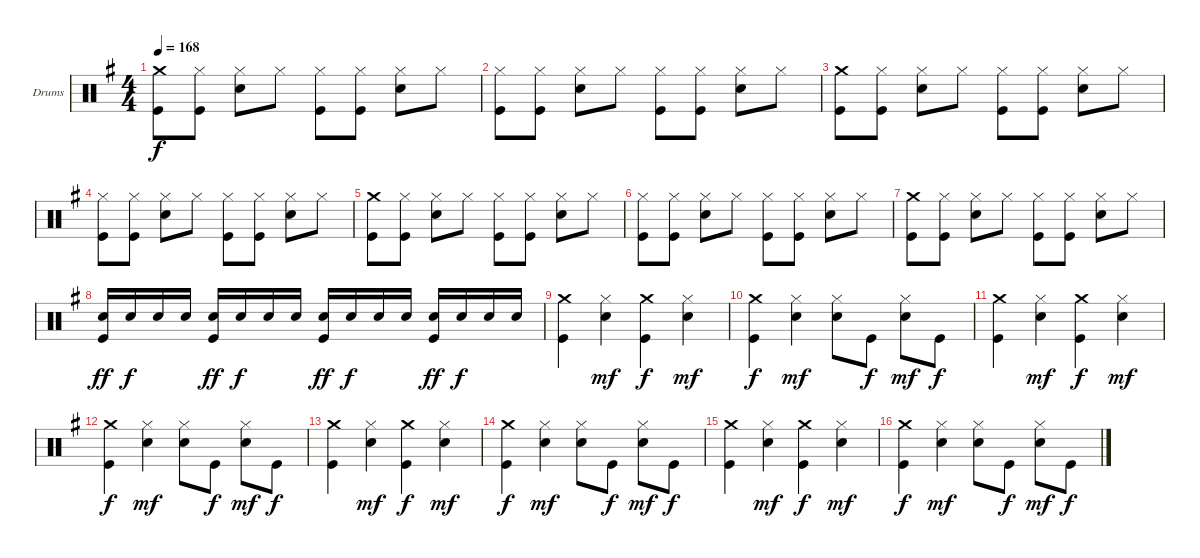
\defaultSystemsLayout 4
\bracketExtendMode groupsimilarinstruments
\firstSystemTrackNameOrientation horizontal
\otherSystemsTrackNameOrientation horizontal
\track ("Drumkit" "Drums") {instrument percussion}
\staff {score}
\articulation defaults
\ts (4 4)
\tempo 168
\clef neutral
\ks g
("Crash medium (hit)" "Kick (hit)").8{dy f} ("Hi-Hat (closed)" "Kick (hit)").8 ("Hi-Hat (closed)" "Snare (hit) 2").8 "Hi-Hat (closed)".8 ("Hi-Hat (closed)" "Kick (hit)").8 ("Hi-Hat (closed)" "Kick (hit)").8 ("Hi-Hat (closed)" "Snare (hit) 2").8 "Hi-Hat (closed)".8 |
("Hi-Hat (closed)" "Kick (hit)").8 ("Hi-Hat (closed)" "Kick (hit)").8 ("Hi-Hat (closed)" "Snare (hit) 2").8 "Hi-Hat (closed)".8 ("Hi-Hat (closed)" "Kick (hit)").8 ("Hi-Hat (closed)" "Kick (hit)").8 ("Hi-Hat (closed)" "Snare (hit) 2").8 "Hi-Hat (closed)".8 |
("Crash medium (hit)" "Kick (hit)").8 ("Hi-Hat (closed)" "Kick (hit)").8 ("Hi-Hat (closed)" "Snare (hit) 2").8 "Hi-Hat (closed)".8 ("Hi-Hat (closed)" "Kick (hit)").8 ("Hi-Hat (closed)" "Kick (hit)").8 ("Hi-Hat (closed)" "Snare (hit) 2").8 "Hi-Hat (closed)".8 |
("Hi-Hat (closed)" "Kick (hit)").8 ("Hi-Hat (closed)" "Kick (hit)").8 ("Hi-Hat (closed)" "Snare (hit) 2").8 "Hi-Hat (closed)".8 ("Hi-Hat (closed)" "Kick (hit)").8 ("Hi-Hat (closed)" "Kick (hit)").8 ("Hi-Hat (closed)" "Snare (hit) 2").8 "Hi-Hat (closed)".8 |
("Crash medium (hit)" "Kick (hit)").8 ("Hi-Hat (closed)" "Kick (hit)").8 ("Hi-Hat (closed)" "Snare (hit) 2").8 "Hi-Hat (closed)".8 ("Hi-Hat (closed)" "Kick (hit)").8 ("Hi-Hat (closed)" "Kick (hit)").8 ("Hi-Hat (closed)" "Snare (hit) 2").8 "Hi-Hat (closed)".8 |
("Hi-Hat (closed)" "Kick (hit)").8 ("Hi-Hat (closed)" "Kick (hit)").8 ("Hi-Hat (closed)" "Snare (hit) 2").8 "Hi-Hat (closed)".8 ("Hi-Hat (closed)" "Kick (hit)").8 ("Hi-Hat (closed)" "Kick (hit)").8 ("Hi-Hat (closed)" "Snare (hit) 2").8 "Hi-Hat (closed)".8 |
("Crash medium (hit)" "Kick (hit)").8 ("Hi-Hat (closed)" "Kick (hit)").8 ("Hi-Hat (closed)" "Snare (hit) 2").8 "Hi-Hat (closed)".8 ("Hi-Hat (closed)" "Kick (hit)").8 ("Hi-Hat (closed)" "Kick (hit)").8 ("Hi-Hat (closed)" "Snare (hit) 2").8 "Hi-Hat (closed)".8 |
("Snare (hit) 2" "Kick (hit)").16{dy ff} "Snare (hit) 2".16{dy f} "Snare (hit) 2".16 "Snare (hit) 2".16 ("Snare (hit) 2" "Kick (hit)").16{dy ff} "Snare (hit) 2".16{dy f} "Snare (hit) 2".16 "Snare (hit) 2".16 ("Snare (hit) 2" "Kick (hit)").16{dy ff} "Snare (hit) 2".16{dy f} "Snare (hit) 2".16 "Snare (hit) 2".16 ("Snare (hit) 2" "Kick (hit)").16{dy ff} "Snare (hit) 2".16{dy f} "Snare (hit) 2".16 "Snare (hit) 2".16 |
("Crash medium (hit)" "Kick (hit)").4 ("Hi-Hat (closed)" "Snare (hit) 2").4{dy mf} ("Crash medium (hit)" "Kick (hit)").4{dy f} ("Hi-Hat (closed)" "Snare (hit) 2").4{dy mf} |
("Crash medium (hit)" "Kick (hit)").4{dy f} ("Hi-Hat (closed)" "Snare (hit) 2").4{dy mf} ("Hi-Hat (closed)" "Snare (hit) 2").8 "Kick (hit)".8{dy f} ("Hi-Hat (closed)" "Snare (hit) 2").8{dy mf} "Kick (hit)".8{dy f} |
("Crash medium (hit)" "Kick (hit)").4 ("Hi-Hat (closed)" "Snare (hit) 2").4{dy mf} ("Crash medium (hit)" "Kick (hit)").4{dy f} ("Hi-Hat (closed)" "Snare (hit) 2").4{dy mf} |
("Crash medium (hit)" "Kick (hit)").4{dy f} ("Hi-Hat (closed)" "Snare (hit) 2").4{dy mf} ("Hi-Hat (closed)" "Snare (hit) 2").8 "Kick (hit)".8{dy f} ("Hi-Hat (closed)" "Snare (hit) 2").8{dy mf} "Kick (hit)".8{dy f} |
("Crash medium (hit)" "Kick (hit)").4 ("Hi-Hat (closed)" "Snare (hit) 2").4{dy mf} ("Crash medium (hit)" "Kick (hit)").4{dy f} ("Hi-Hat (closed)" "Snare (hit) 2").4{dy mf} |
("Crash medium (hit)" "Kick (hit)").4{dy f} ("Hi-Hat (closed)" "Snare (hit) 2").4{dy mf} ("Hi-Hat (closed)" "Snare (hit) 2").8 "Kick (hit)".8{dy f} ("Hi-Hat (closed)" "Snare (hit) 2").8{dy mf} "Kick (hit)".8{dy f} |
("Crash medium (hit)" "Kick (hit)").4 ("Hi-Hat (closed)" "Snare (hit) 2").4{dy mf} ("Crash medium (hit)" "Kick (hit)").4{dy f} ("Hi-Hat (closed)" "Snare (hit) 2").4{dy mf} |
("Crash medium (hit)" "Kick (hit)").4{dy f} ("Hi-Hat (closed)" "Snare (hit) 2").4{dy mf} ("Hi-Hat (closed)" "Snare (hit) 2").8 "Kick (hit)".8{dy f} ("Hi-Hat (closed)" "Snare (hit) 2").8{dy mf} "Kick (hit)".8{dy f}
